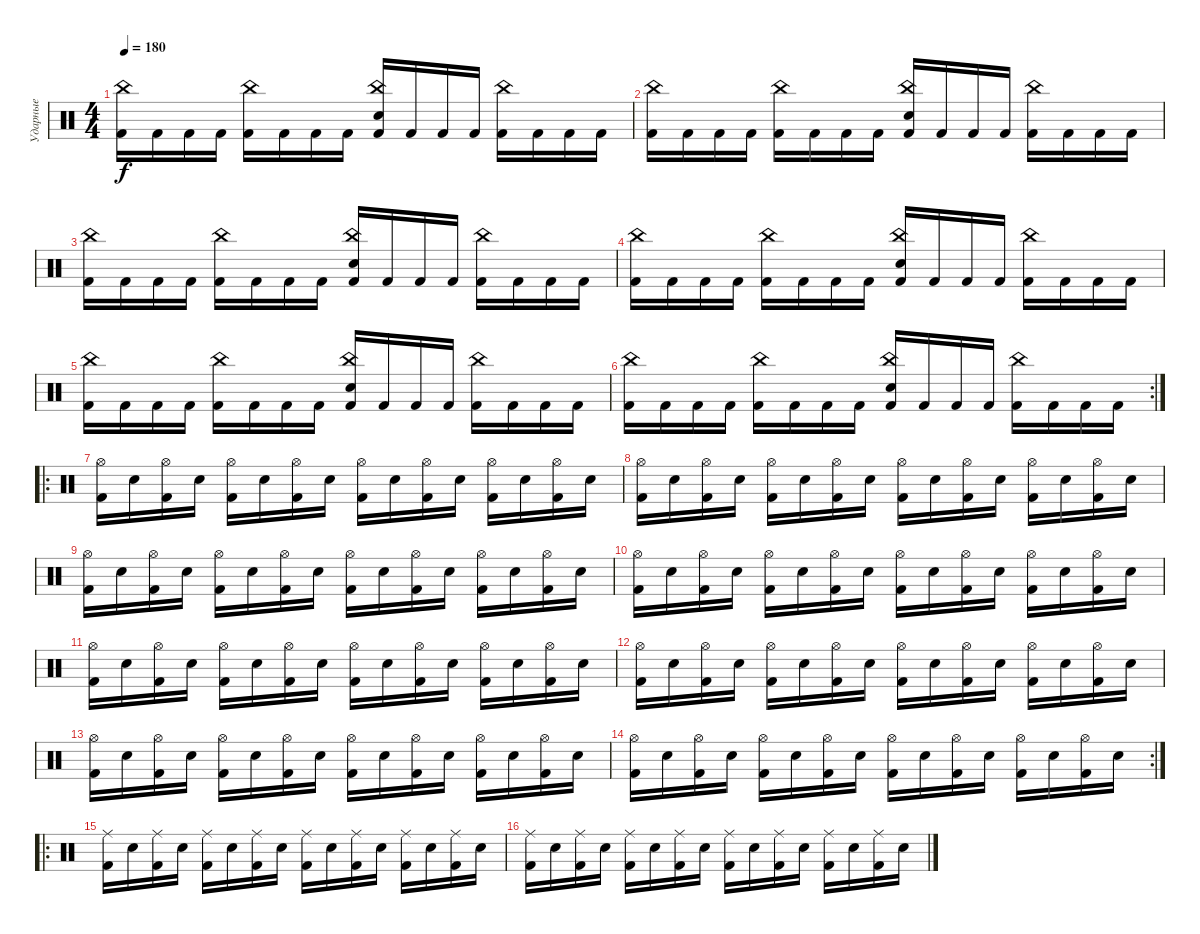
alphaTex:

\track ("Ударные" "Ударные") {instrument percussion}
\staff {score}
\articulation defaults
\ts (4 4)
\tempo 180
\clef neutral
\ks c
("Kick (hit) 2" "China (hit)").16{dy f} "Kick (hit) 2".16 "Kick (hit) 2".16 "Kick (hit) 2".16 ("Kick (hit) 2" "China (hit)").16 "Kick (hit) 2".16 "Kick (hit) 2".16 "Kick (hit) 2".16 ("Kick (hit) 2" "China (hit)" "Electric Snare (hit)").16 "Kick (hit) 2".16 "Kick (hit) 2".16 "Kick (hit) 2".16 ("Kick (hit) 2" "China (hit)").16 "Kick (hit) 2".16 "Kick (hit) 2".16 "Kick (hit) 2".16 |
("Kick (hit) 2" "China (hit)").16 "Kick (hit) 2".16 "Kick (hit) 2".16 "Kick (hit) 2".16 ("Kick (hit) 2" "China (hit)").16 "Kick (hit) 2".16 "Kick (hit) 2".16 "Kick (hit) 2".16 ("Kick (hit) 2" "China (hit)" "Electric Snare (hit)").16 "Kick (hit) 2".16 "Kick (hit) 2".16 "Kick (hit) 2".16 ("Kick (hit) 2" "China (hit)").16 "Kick (hit) 2".16 "Kick (hit) 2".16 "Kick (hit) 2".16 |
("Kick (hit) 2" "China (hit)").16 "Kick (hit) 2".16 "Kick (hit) 2".16 "Kick (hit) 2".16 ("Kick (hit) 2" "China (hit)").16 "Kick (hit) 2".16 "Kick (hit) 2".16 "Kick (hit) 2".16 ("Kick (hit) 2" "China (hit)" "Electric Snare (hit)").16 "Kick (hit) 2".16 "Kick (hit) 2".16 "Kick (hit) 2".16 ("Kick (hit) 2" "China (hit)").16 "Kick (hit) 2".16 "Kick (hit) 2".16 "Kick (hit) 2".16 |
("Kick (hit) 2" "China (hit)").16 "Kick (hit) 2".16 "Kick (hit) 2".16 "Kick (hit) 2".16 ("Kick (hit) 2" "China (hit)").16 "Kick (hit) 2".16 "Kick (hit) 2".16 "Kick (hit) 2".16 ("Kick (hit) 2" "China (hit)" "Electric Snare (hit)").16 "Kick (hit) 2".16 "Kick (hit) 2".16 "Kick (hit) 2".16 ("Kick (hit) 2" "China (hit)").16 "Kick (hit) 2".16 "Kick (hit) 2".16 "Kick (hit) 2".16 |
("Kick (hit) 2" "China (hit)").16 "Kick (hit) 2".16 "Kick (hit) 2".16 "Kick (hit) 2".16 ("Kick (hit) 2" "China (hit)").16 "Kick (hit) 2".16 "Kick (hit) 2".16 "Kick (hit) 2".16 ("Kick (hit) 2" "China (hit)" "Electric Snare (hit)").16 "Kick (hit) 2".16 "Kick (hit) 2".16 "Kick (hit) 2".16 ("Kick (hit) 2" "China (hit)").16 "Kick (hit) 2".16 "Kick (hit) 2".16 "Kick (hit) 2".16 |
\rc 2
("Kick (hit) 2" "China (hit)").16 "Kick (hit) 2".16 "Kick (hit) 2".16 "Kick (hit) 2".16 ("Kick (hit) 2" "China (hit)").16 "Kick (hit) 2".16 "Kick (hit) 2".16 "Kick (hit) 2".16 ("Kick (hit) 2" "China (hit)" "Electric Snare (hit)").16 "Kick (hit) 2".16 "Kick (hit) 2".16 "Kick (hit) 2".16 ("Kick (hit) 2" "China (hit)").16 "Kick (hit) 2".16 "Kick (hit) 2".16 "Kick (hit) 2".16 |
\ro
("Kick (hit) 2" "Hi-Hat (open)").16 "Electric Snare (hit)".16 ("Kick (hit) 2" "Hi-Hat (open)").16 "Electric Snare (hit)".16 ("Kick (hit) 2" "Hi-Hat (open)").16 "Electric Snare (hit)".16 ("Kick (hit) 2" "Hi-Hat (open)").16 "Electric Snare (hit)".16 ("Kick (hit) 2" "Hi-Hat (open)").16 "Electric Snare (hit)".16 ("Kick (hit) 2" "Hi-Hat (open)").16 "Electric Snare (hit)".16 ("Kick (hit) 2" "Hi-Hat (open)").16 "Electric Snare (hit)".16 ("Kick (hit) 2" "Hi-Hat (open)").16 "Electric Snare (hit)".16 |
("Kick (hit) 2" "Hi-Hat (open)").16 "Electric Snare (hit)".16 ("Kick (hit) 2" "Hi-Hat (open)").16 "Electric Snare (hit)".16 ("Kick (hit) 2" "Hi-Hat (open)").16 "Electric Snare (hit)".16 ("Kick (hit) 2" "Hi-Hat (open)").16 "Electric Snare (hit)".16 ("Kick (hit) 2" "Hi-Hat (open)").16 "Electric Snare (hit)".16 ("Kick (hit) 2" "Hi-Hat (open)").16 "Electric Snare (hit)".16 ("Kick (hit) 2" "Hi-Hat (open)").16 "Electric Snare (hit)".16 ("Kick (hit) 2" "Hi-Hat (open)").16 "Electric Snare (hit)".16 |
("Kick (hit) 2" "Hi-Hat (open)").16 "Electric Snare (hit)".16 ("Kick (hit) 2" "Hi-Hat (open)").16 "Electric Snare (hit)".16 ("Kick (hit) 2" "Hi-Hat (open)").16 "Electric Snare (hit)".16 ("Kick (hit) 2" "Hi-Hat (open)").16 "Electric Snare (hit)".16 ("Kick (hit) 2" "Hi-Hat (open)").16 "Electric Snare (hit)".16 ("Kick (hit) 2" "Hi-Hat (open)").16 "Electric Snare (hit)".16 ("Kick (hit) 2" "Hi-Hat (open)").16 "Electric Snare (hit)".16 ("Kick (hit) 2" "Hi-Hat (open)").16 "Electric Snare (hit)".16 |
("Kick (hit) 2" "Hi-Hat (open)").16 "Electric Snare (hit)".16 ("Kick (hit) 2" "Hi-Hat (open)").16 "Electric Snare (hit)".16 ("Kick (hit) 2" "Hi-Hat (open)").16 "Electric Snare (hit)".16 ("Kick (hit) 2" "Hi-Hat (open)").16 "Electric Snare (hit)".16 ("Kick (hit) 2" "Hi-Hat (open)").16 "Electric Snare (hit)".16 ("Kick (hit) 2" "Hi-Hat (open)").16 "Electric Snare (hit)".16 ("Kick (hit) 2" "Hi-Hat (open)").16 "Electric Snare (hit)".16 ("Kick (hit) 2" "Hi-Hat (open)").16 "Electric Snare (hit)".16 |
("Kick (hit) 2" "Hi-Hat (open)").16 "Electric Snare (hit)".16 ("Kick (hit) 2" "Hi-Hat (open)").16 "Electric Snare (hit)".16 ("Kick (hit) 2" "Hi-Hat (open)").16 "Electric Snare (hit)".16 ("Kick (hit) 2" "Hi-Hat (open)").16 "Electric Snare (hit)".16 ("Kick (hit) 2" "Hi-Hat (open)").16 "Electric Snare (hit)".16 ("Kick (hit) 2" "Hi-Hat (open)").16 "Electric Snare (hit)".16 ("Kick (hit) 2" "Hi-Hat (open)").16 "Electric Snare (hit)".16 ("Kick (hit) 2" "Hi-Hat (open)").16 "Electric Snare (hit)".16 |
("Kick (hit) 2" "Hi-Hat (open)").16 "Electric Snare (hit)".16 ("Kick (hit) 2" "Hi-Hat (open)").16 "Electric Snare (hit)".16 ("Kick (hit) 2" "Hi-Hat (open)").16 "Electric Snare (hit)".16 ("Kick (hit) 2" "Hi-Hat (open)").16 "Electric Snare (hit)".16 ("Kick (hit) 2" "Hi-Hat (open)").16 "Electric Snare (hit)".16 ("Kick (hit) 2" "Hi-Hat (open)").16 "Electric Snare (hit)".16 ("Kick (hit) 2" "Hi-Hat (open)").16 "Electric Snare (hit)".16 ("Kick (hit) 2" "Hi-Hat (open)").16 "Electric Snare (hit)".16 |
("Kick (hit) 2" "Hi-Hat (open)").16 "Electric Snare (hit)".16 ("Kick (hit) 2" "Hi-Hat (open)").16 "Electric Snare (hit)".16 ("Kick (hit) 2" "Hi-Hat (open)").16 "Electric Snare (hit)".16 ("Kick (hit) 2" "Hi-Hat (open)").16 "Electric Snare (hit)".16 ("Kick (hit) 2" "Hi-Hat (open)").16 "Electric Snare (hit)".16 ("Kick (hit) 2" "Hi-Hat (open)").16 "Electric Snare (hit)".16 ("Kick (hit) 2" "Hi-Hat (open)").16 "Electric Snare (hit)".16 ("Kick (hit) 2" "Hi-Hat (open)").16 "Electric Snare (hit)".16 |
\rc 2
("Kick (hit) 2" "Hi-Hat (open)").16 "Electric Snare (hit)".16 ("Kick (hit) 2" "Hi-Hat (open)").16 "Electric Snare (hit)".16 ("Kick (hit) 2" "Hi-Hat (open)").16 "Electric Snare (hit)".16 ("Kick (hit) 2" "Hi-Hat (open)").16 "Electric Snare (hit)".16 ("Kick (hit) 2" "Hi-Hat (open)").16 "Electric Snare (hit)".16 ("Kick (hit) 2" "Hi-Hat (open)").16 "Electric Snare (hit)".16 ("Kick (hit) 2" "Hi-Hat (open)").16 "Electric Snare (hit)".16 ("Kick (hit) 2" "Hi-Hat (open)").16 "Electric Snare (hit)".16 |
\ro
("Kick (hit) 2" "Ride (middle)").16 "Electric Snare (hit)".16 ("Kick (hit) 2" "Ride (middle)").16 "Electric Snare (hit)".16 ("Kick (hit) 2" "Ride (middle)").16 "Electric Snare (hit)".16 ("Kick (hit) 2" "Ride (middle)").16 "Electric Snare (hit)".16 ("Kick (hit) 2" "Ride (middle)").16 "Electric Snare (hit)".16 ("Kick (hit) 2" "Ride (middle)").16 "Electric Snare (hit)".16 ("Kick (hit) 2" "Ride (middle)").16 "Electric Snare (hit)".16 ("Kick (hit) 2" "Ride (middle)").16 "Electric Snare (hit)".16 |
("Kick (hit) 2" "Ride (middle)").16 "Electric Snare (hit)".16 ("Kick (hit) 2" "Ride (middle)").16 "Electric Snare (hit)".16 ("Kick (hit) 2" "Ride (middle)").16 "Electric Snare (hit)".16 ("Kick (hit) 2" "Ride (middle)").16 "Electric Snare (hit)".16 ("Kick (hit) 2" "Ride (middle)").16 "Electric Snare (hit)".16 ("Kick (hit) 2" "Ride (middle)").16 "Electric Snare (hit)".16 ("Kick (hit) 2" "Ride (middle)").16 "Electric Snare (hit)".16 ("Kick (hit) 2" "Ride (middle)").16 "Electric Snare (hit)".16
